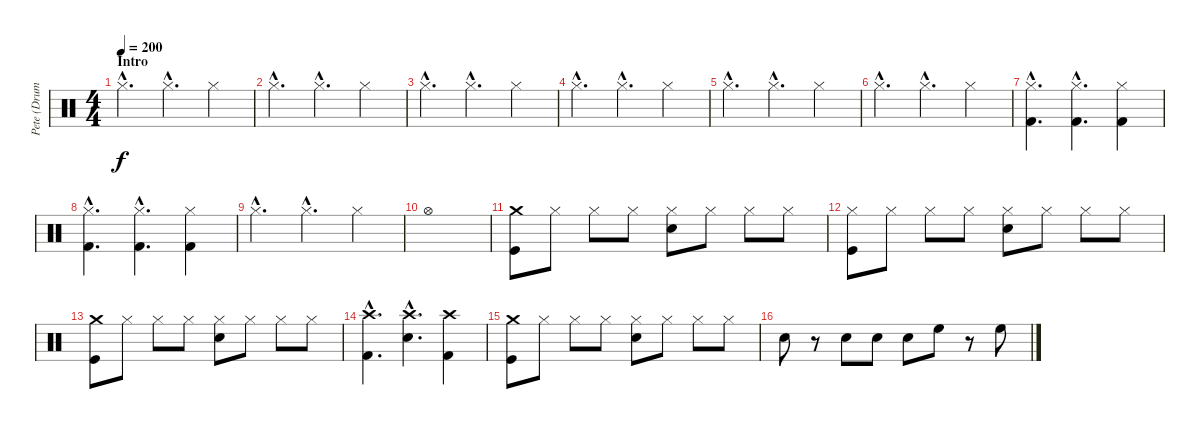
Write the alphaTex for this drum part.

\track ("Pete (Drums)" "Pete (Drum") {instrument percussion}
\staff {score}
\articulation defaults
\ts (4 4)
\section ("" "Intro")
\tempo 200
\clef neutral
\ks c "Hi-Hat (closed)"{hac}.4{d dy f} "Hi-Hat (closed)"{hac}.4{d} "Hi-Hat (closed)".4
|
"Hi-Hat (closed)"{hac}.4{d} "Hi-Hat (closed)"{hac}.4{d} "Hi-Hat (closed)".4 |
"Hi-Hat (closed)"{hac}.4{d} "Hi-Hat (closed)"{hac}.4{d} "Hi-Hat (closed)".4 |
"Hi-Hat (closed)"{hac}.4{d} "Hi-Hat (closed)"{hac}.4{d} "Hi-Hat (closed)".4 |
"Hi-Hat (closed)"{hac}.4{d} "Hi-Hat (closed)"{hac}.4{d} "Hi-Hat (closed)".4 |
"Hi-Hat (closed)"{hac}.4{d} "Hi-Hat (closed)"{hac}.4{d} "Hi-Hat (closed)".4 |
("Hi-Hat (closed)"{hac} "Kick (hit) 2"{hac}).4{d} ("Hi-Hat (closed)"{hac} "Kick (hit) 2"{hac}).4{d} ("Hi-Hat (closed)" "Kick (hit) 2").4 |
("Hi-Hat (closed)"{hac} "Kick (hit) 2"{hac}).4{d} ("Hi-Hat (closed)"{hac} "Kick (hit) 2"{hac}).4{d} ("Hi-Hat (closed)" "Kick (hit) 2").4 |
"Hi-Hat (closed)"{hac}.4{d} "Hi-Hat (closed)"{hac}.4{d} "Hi-Hat (closed)".4 |
"Hi-Hat (open)".1 |
("Crash medium (hit)" "Kick (hit)").8 "Hi-Hat (closed)".8 "Hi-Hat (closed)".8 "Hi-Hat (closed)".8 ("Hi-Hat (closed)" "Snare (hit) 2").8 "Hi-Hat (closed)".8 "Hi-Hat (closed)".8 "Hi-Hat (closed)".8 |
("Hi-Hat (closed)" "Kick (hit)").8 "Hi-Hat (closed)".8 "Hi-Hat (closed)".8 "Hi-Hat (closed)".8 ("Hi-Hat (closed)" "Snare (hit) 2").8 "Hi-Hat (closed)".8 "Hi-Hat (closed)".8 "Hi-Hat (closed)".8 |
("Crash medium (hit)" "Kick (hit)").8 "Hi-Hat (closed)".8 "Hi-Hat (closed)".8 "Hi-Hat (closed)".8 ("Hi-Hat (closed)" "Snare (hit) 2").8 "Hi-Hat (closed)".8 "Hi-Hat (closed)".8 "Hi-Hat (closed)".8 |
("Crash high (hit)"{hac} "Kick (hit) 2"{hac}).4{d} ("Crash high (hit)"{hac} "Snare (hit) 2"{hac}).4{d} ("Crash high (hit)" "Kick (hit) 2").4 |
("Crash medium (hit)" "Kick (hit)").8 "Hi-Hat (closed)".8 "Hi-Hat (closed)".8 "Hi-Hat (closed)".8 ("Hi-Hat (closed)" "Snare (hit) 2").8 "Hi-Hat (closed)".8 "Hi-Hat (closed)".8 "Hi-Hat (closed)".8 |
"Snare (hit) 2".8 r.8 "Snare (hit) 2".8 "Snare (hit) 2".8 "Snare (hit) 2".8 "High Floor Tom (hit)".8 r.8 "High Floor Tom (hit)".8
